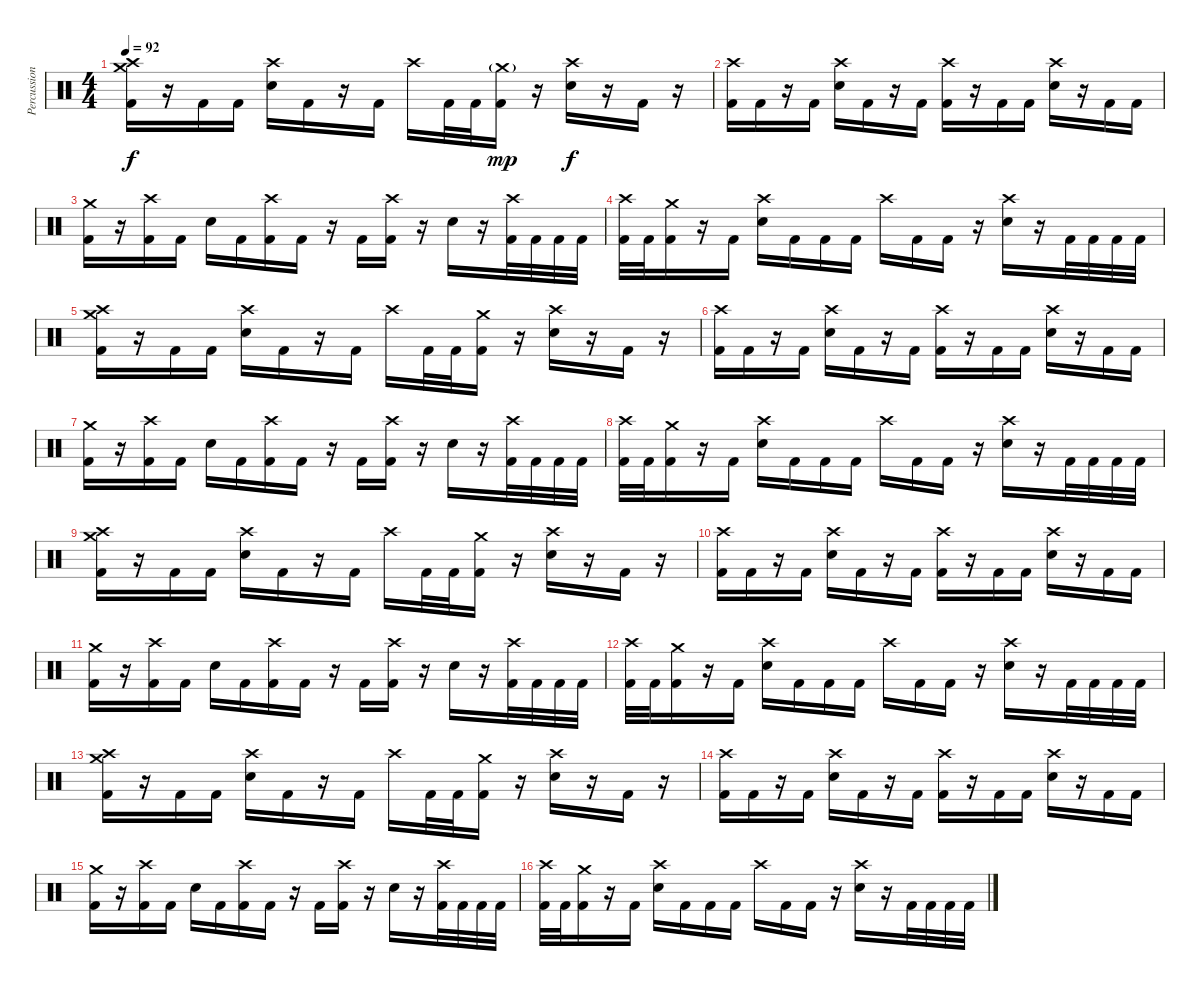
\track ("Percussion" "Percussion") {instrument percussion}
\staff {score}
\articulation defaults
\ts (4 4)
\tempo 92
\clef neutral
\ks c
("Crash high (hit)" "Crash medium (hit)" "Kick (hit) 2").16{dy f} r.16 "Kick (hit) 2".16 "Kick (hit) 2".16 ("Crash high (hit)" "Electric Snare (hit)").16 "Kick (hit) 2".16 r.16 "Kick (hit) 2".16 "Crash high (hit)".16 "Kick (hit) 2".32 "Kick (hit) 2".32 ("Crash medium (hit)"{g} "Kick (hit) 2").16{dy mp} r.16 ("Crash high (hit)" "Electric Snare (hit)").16{dy f} r.16 "Kick (hit) 2".16 r.16 |
("Crash high (hit)" "Kick (hit) 2").16 "Kick (hit) 2".16 r.16 "Kick (hit) 2".16 ("Crash high (hit)" "Electric Snare (hit)").16 "Kick (hit) 2".16 r.16 "Kick (hit) 2".16 ("Crash high (hit)" "Kick (hit) 2").16 r.16 "Kick (hit) 2".16 "Kick (hit) 2".16 ("Crash high (hit)" "Electric Snare (hit)").16 r.16 "Kick (hit) 2".16 "Kick (hit) 2".16 |
("Crash medium (hit)" "Kick (hit) 2").16 r.16 ("Crash high (hit)" "Kick (hit) 2").16 "Kick (hit) 2".16 "Electric Snare (hit)".16 "Kick (hit) 2".16 ("Crash high (hit)" "Kick (hit) 2").16 "Kick (hit) 2".16 r.16 "Kick (hit) 2".16 ("Crash high (hit)" "Kick (hit) 2").16 r.16 "Electric Snare (hit)".16 r.16 ("Crash high (hit)" "Kick (hit) 2").32 "Kick (hit) 2".32 "Kick (hit) 2".32 "Kick (hit) 2".32 |
("Crash high (hit)" "Kick (hit) 2").32 "Kick (hit) 2".32 ("Crash medium (hit)" "Kick (hit) 2").16 r.16 "Kick (hit) 2".16 ("Crash high (hit)" "Electric Snare (hit)").16 "Kick (hit) 2".16 "Kick (hit) 2".16 "Kick (hit) 2".16 "Crash high (hit)".16 "Kick (hit) 2".16 "Kick (hit) 2".16 r.16 ("Crash high (hit)" "Electric Snare (hit)").16 r.16 "Kick (hit) 2".32 "Kick (hit) 2".32 "Kick (hit) 2".32 "Kick (hit) 2".32 |
("Crash high (hit)" "Crash medium (hit)" "Kick (hit) 2").16 r.16 "Kick (hit) 2".16 "Kick (hit) 2".16 ("Crash high (hit)" "Electric Snare (hit)").16 "Kick (hit) 2".16 r.16 "Kick (hit) 2".16 "Crash high (hit)".16 "Kick (hit) 2".32 "Kick (hit) 2".32 ("Crash medium (hit)" "Kick (hit) 2").16 r.16 ("Crash high (hit)" "Electric Snare (hit)").16 r.16 "Kick (hit) 2".16 r.16 |
("Crash high (hit)" "Kick (hit) 2").16 "Kick (hit) 2".16 r.16 "Kick (hit) 2".16 ("Crash high (hit)" "Electric Snare (hit)").16 "Kick (hit) 2".16 r.16 "Kick (hit) 2".16 ("Crash high (hit)" "Kick (hit) 2").16 r.16 "Kick (hit) 2".16 "Kick (hit) 2".16 ("Crash high (hit)" "Electric Snare (hit)").16 r.16 "Kick (hit) 2".16 "Kick (hit) 2".16 |
("Crash medium (hit)" "Kick (hit) 2").16 r.16 ("Crash high (hit)" "Kick (hit) 2").16 "Kick (hit) 2".16 "Electric Snare (hit)".16 "Kick (hit) 2".16 ("Crash high (hit)" "Kick (hit) 2").16 "Kick (hit) 2".16 r.16 "Kick (hit) 2".16 ("Crash high (hit)" "Kick (hit) 2").16 r.16 "Electric Snare (hit)".16 r.16 ("Crash high (hit)" "Kick (hit) 2").32 "Kick (hit) 2".32 "Kick (hit) 2".32 "Kick (hit) 2".32 |
("Crash high (hit)" "Kick (hit) 2").32 "Kick (hit) 2".32 ("Crash medium (hit)" "Kick (hit) 2").16 r.16 "Kick (hit) 2".16 ("Crash high (hit)" "Electric Snare (hit)").16 "Kick (hit) 2".16 "Kick (hit) 2".16 "Kick (hit) 2".16 "Crash high (hit)".16 "Kick (hit) 2".16 "Kick (hit) 2".16 r.16 ("Crash high (hit)" "Electric Snare (hit)").16 r.16 "Kick (hit) 2".32 "Kick (hit) 2".32 "Kick (hit) 2".32 "Kick (hit) 2".32 |
("Crash high (hit)" "Crash medium (hit)" "Kick (hit) 2").16 r.16 "Kick (hit) 2".16 "Kick (hit) 2".16 ("Crash high (hit)" "Electric Snare (hit)").16 "Kick (hit) 2".16 r.16 "Kick (hit) 2".16 "Crash high (hit)".16 "Kick (hit) 2".32 "Kick (hit) 2".32 ("Crash medium (hit)" "Kick (hit) 2").16 r.16 ("Crash high (hit)" "Electric Snare (hit)").16 r.16 "Kick (hit) 2".16 r.16 |
("Crash high (hit)" "Kick (hit) 2").16 "Kick (hit) 2".16 r.16 "Kick (hit) 2".16 ("Crash high (hit)" "Electric Snare (hit)").16 "Kick (hit) 2".16 r.16 "Kick (hit) 2".16 ("Crash high (hit)" "Kick (hit) 2").16 r.16 "Kick (hit) 2".16 "Kick (hit) 2".16 ("Crash high (hit)" "Electric Snare (hit)").16 r.16 "Kick (hit) 2".16 "Kick (hit) 2".16 |
("Crash medium (hit)" "Kick (hit) 2").16 r.16 ("Crash high (hit)" "Kick (hit) 2").16 "Kick (hit) 2".16 "Electric Snare (hit)".16 "Kick (hit) 2".16 ("Crash high (hit)" "Kick (hit) 2").16 "Kick (hit) 2".16 r.16 "Kick (hit) 2".16 ("Crash high (hit)" "Kick (hit) 2").16 r.16 "Electric Snare (hit)".16 r.16 ("Crash high (hit)" "Kick (hit) 2").32 "Kick (hit) 2".32 "Kick (hit) 2".32 "Kick (hit) 2".32 |
("Crash high (hit)" "Kick (hit) 2").32 "Kick (hit) 2".32 ("Crash medium (hit)" "Kick (hit) 2").16 r.16 "Kick (hit) 2".16 ("Crash high (hit)" "Electric Snare (hit)").16 "Kick (hit) 2".16 "Kick (hit) 2".16 "Kick (hit) 2".16 "Crash high (hit)".16 "Kick (hit) 2".16 "Kick (hit) 2".16 r.16 ("Crash high (hit)" "Electric Snare (hit)").16 r.16 "Kick (hit) 2".32 "Kick (hit) 2".32 "Kick (hit) 2".32 "Kick (hit) 2".32 |
("Crash high (hit)" "Crash medium (hit)" "Kick (hit) 2").16 r.16 "Kick (hit) 2".16 "Kick (hit) 2".16 ("Crash high (hit)" "Electric Snare (hit)").16 "Kick (hit) 2".16 r.16 "Kick (hit) 2".16 "Crash high (hit)".16 "Kick (hit) 2".32 "Kick (hit) 2".32 ("Crash medium (hit)" "Kick (hit) 2").16 r.16 ("Crash high (hit)" "Electric Snare (hit)").16 r.16 "Kick (hit) 2".16 r.16 |
("Crash high (hit)" "Kick (hit) 2").16 "Kick (hit) 2".16 r.16 "Kick (hit) 2".16 ("Crash high (hit)" "Electric Snare (hit)").16 "Kick (hit) 2".16 r.16 "Kick (hit) 2".16 ("Crash high (hit)" "Kick (hit) 2").16 r.16 "Kick (hit) 2".16 "Kick (hit) 2".16 ("Crash high (hit)" "Electric Snare (hit)").16 r.16 "Kick (hit) 2".16 "Kick (hit) 2".16 |
("Crash medium (hit)" "Kick (hit) 2").16 r.16 ("Crash high (hit)" "Kick (hit) 2").16 "Kick (hit) 2".16 "Electric Snare (hit)".16 "Kick (hit) 2".16 ("Crash high (hit)" "Kick (hit) 2").16 "Kick (hit) 2".16 r.16 "Kick (hit) 2".16 ("Crash high (hit)" "Kick (hit) 2").16 r.16 "Electric Snare (hit)".16 r.16 ("Crash high (hit)" "Kick (hit) 2").32 "Kick (hit) 2".32 "Kick (hit) 2".32 "Kick (hit) 2".32 |
("Crash high (hit)" "Kick (hit) 2").32 "Kick (hit) 2".32 ("Crash medium (hit)" "Kick (hit) 2").16 r.16 "Kick (hit) 2".16 ("Crash high (hit)" "Electric Snare (hit)").16 "Kick (hit) 2".16 "Kick (hit) 2".16 "Kick (hit) 2".16 "Crash high (hit)".16 "Kick (hit) 2".16 "Kick (hit) 2".16 r.16 ("Crash high (hit)" "Electric Snare (hit)").16 r.16 "Kick (hit) 2".32 "Kick (hit) 2".32 "Kick (hit) 2".32 "Kick (hit) 2".32
